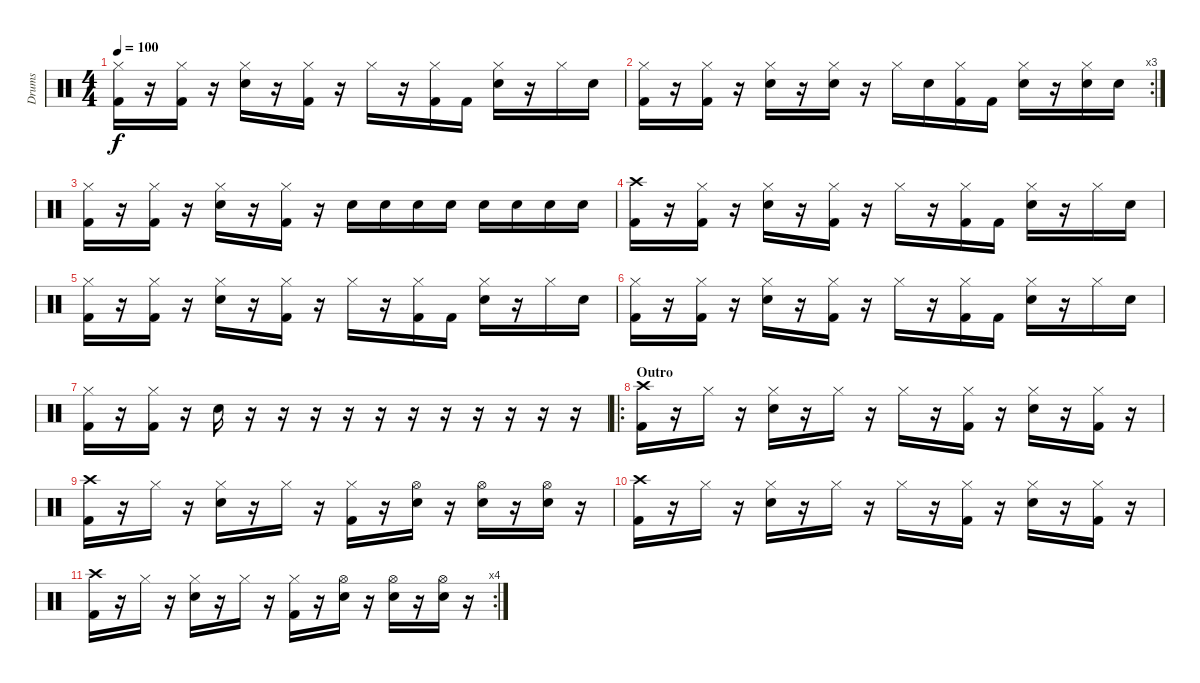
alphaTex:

\track ("Drums" "Drums") {instrument percussion}
\staff {score}
\articulation defaults
\ts (4 4)
\tempo 100
\clef neutral
\ks c
("Hi-Hat (closed)" "Kick (hit) 2").16{dy f} r.16 ("Hi-Hat (closed)" "Kick (hit) 2").16 r.16 ("Hi-Hat (closed)" "Snare (hit) 2").16 r.16 ("Hi-Hat (closed)" "Kick (hit) 2").16 r.16 "Hi-Hat (closed)".16 r.16 ("Hi-Hat (closed)" "Kick (hit) 2").16 "Kick (hit) 2".16 ("Hi-Hat (closed)" "Snare (hit) 2").16 r.16 "Hi-Hat (closed)".16 "Snare (hit) 2".16 |
\rc 3
("Hi-Hat (closed)" "Kick (hit) 2").16 r.16 ("Hi-Hat (closed)" "Kick (hit) 2").16 r.16 ("Hi-Hat (closed)" "Snare (hit) 2").16 r.16 ("Hi-Hat (closed)" "Snare (hit) 2").16 r.16 "Hi-Hat (closed)".16 "Snare (hit) 2".16 ("Hi-Hat (closed)" "Kick (hit) 2").16 "Kick (hit) 2".16 ("Hi-Hat (closed)" "Snare (hit) 2").16 r.16 ("Hi-Hat (closed)" "Snare (hit) 2").16 "Snare (hit) 2".16 |
("Hi-Hat (closed)" "Kick (hit) 2").16 r.16 ("Hi-Hat (closed)" "Kick (hit) 2").16 r.16 ("Hi-Hat (closed)" "Snare (hit) 2").16 r.16 ("Hi-Hat (closed)" "Kick (hit) 2").16 r.16 "Snare (hit) 2".16 "Snare (hit) 2".16 "Snare (hit) 2".16 "Snare (hit) 2".16 "Snare (hit) 2".16 "Snare (hit) 2".16 "Snare (hit) 2".16 "Snare (hit) 2".16 |
("Crash high (hit)" "Kick (hit) 2").16 r.16 ("Hi-Hat (closed)" "Kick (hit) 2").16 r.16 ("Hi-Hat (closed)" "Snare (hit) 2").16 r.16 ("Hi-Hat (closed)" "Kick (hit) 2").16 r.16 "Hi-Hat (closed)".16 r.16 ("Hi-Hat (closed)" "Kick (hit) 2").16 "Kick (hit) 2".16 ("Hi-Hat (closed)" "Snare (hit) 2").16 r.16 "Hi-Hat (closed)".16 "Snare (hit) 2".16 |
("Hi-Hat (closed)" "Kick (hit) 2").16 r.16 ("Hi-Hat (closed)" "Kick (hit) 2").16 r.16 ("Hi-Hat (closed)" "Snare (hit) 2").16 r.16 ("Hi-Hat (closed)" "Kick (hit) 2").16 r.16 "Hi-Hat (closed)".16 r.16 ("Hi-Hat (closed)" "Kick (hit) 2").16 "Kick (hit) 2".16 ("Hi-Hat (closed)" "Snare (hit) 2").16 r.16 "Hi-Hat (closed)".16 "Snare (hit) 2".16 |
("Hi-Hat (closed)" "Kick (hit) 2").16 r.16 ("Hi-Hat (closed)" "Kick (hit) 2").16 r.16 ("Hi-Hat (closed)" "Snare (hit) 2").16 r.16 ("Hi-Hat (closed)" "Kick (hit) 2").16 r.16 "Hi-Hat (closed)".16 r.16 ("Hi-Hat (closed)" "Kick (hit) 2").16 "Kick (hit) 2".16 ("Hi-Hat (closed)" "Snare (hit) 2").16 r.16 "Hi-Hat (closed)".16 "Snare (hit) 2".16 |
("Hi-Hat (closed)" "Kick (hit) 2").16 r.16 ("Hi-Hat (closed)" "Kick (hit) 2").16 r.16 "Snare (hit) 2".16 r.16 r.16 r.16 r.16 r.16 r.16 r.16 r.16 r.16 r.16 r.16 |
\ro
\section ("" "Outro")
("Crash high (hit)" "Kick (hit) 2").16 r.16 "Hi-Hat (closed)".16 r.16 ("Hi-Hat (closed)" "Snare (hit) 2").16 r.16 "Hi-Hat (closed)".16 r.16 "Hi-Hat (closed)".16 r.16 ("Hi-Hat (closed)" "Kick (hit) 2").16 r.16 ("Hi-Hat (closed)" "Snare (hit) 2").16 r.16 ("Hi-Hat (closed)" "Kick (hit) 2").16 r.16 |
("Crash high (hit)" "Kick (hit) 2").16 r.16 "Hi-Hat (closed)".16 r.16 ("Hi-Hat (closed)" "Snare (hit) 2").16 r.16 "Hi-Hat (closed)".16 r.16 ("Hi-Hat (closed)" "Kick (hit) 2").16 r.16 ("Hi-Hat (open)" "Snare (hit) 2").16 r.16 ("Hi-Hat (open)" "Snare (hit) 2").16 r.16 ("Hi-Hat (open)" "Snare (hit) 2").16 r.16 |
("Crash high (hit)" "Kick (hit) 2").16 r.16 "Hi-Hat (closed)".16 r.16 ("Hi-Hat (closed)" "Snare (hit) 2").16 r.16 "Hi-Hat (closed)".16 r.16 "Hi-Hat (closed)".16 r.16 ("Hi-Hat (closed)" "Kick (hit) 2").16 r.16 ("Hi-Hat (closed)" "Snare (hit) 2").16 r.16 ("Hi-Hat (closed)" "Kick (hit) 2").16 r.16 |
\rc 4
("Crash high (hit)" "Kick (hit) 2").16 r.16 "Hi-Hat (closed)".16 r.16 ("Hi-Hat (closed)" "Snare (hit) 2").16 r.16 "Hi-Hat (closed)".16 r.16 ("Hi-Hat (closed)" "Kick (hit) 2").16 r.16 ("Hi-Hat (open)" "Snare (hit) 2").16 r.16 ("Hi-Hat (open)" "Snare (hit) 2").16 r.16 ("Hi-Hat (open)" "Snare (hit) 2").16 r.16
